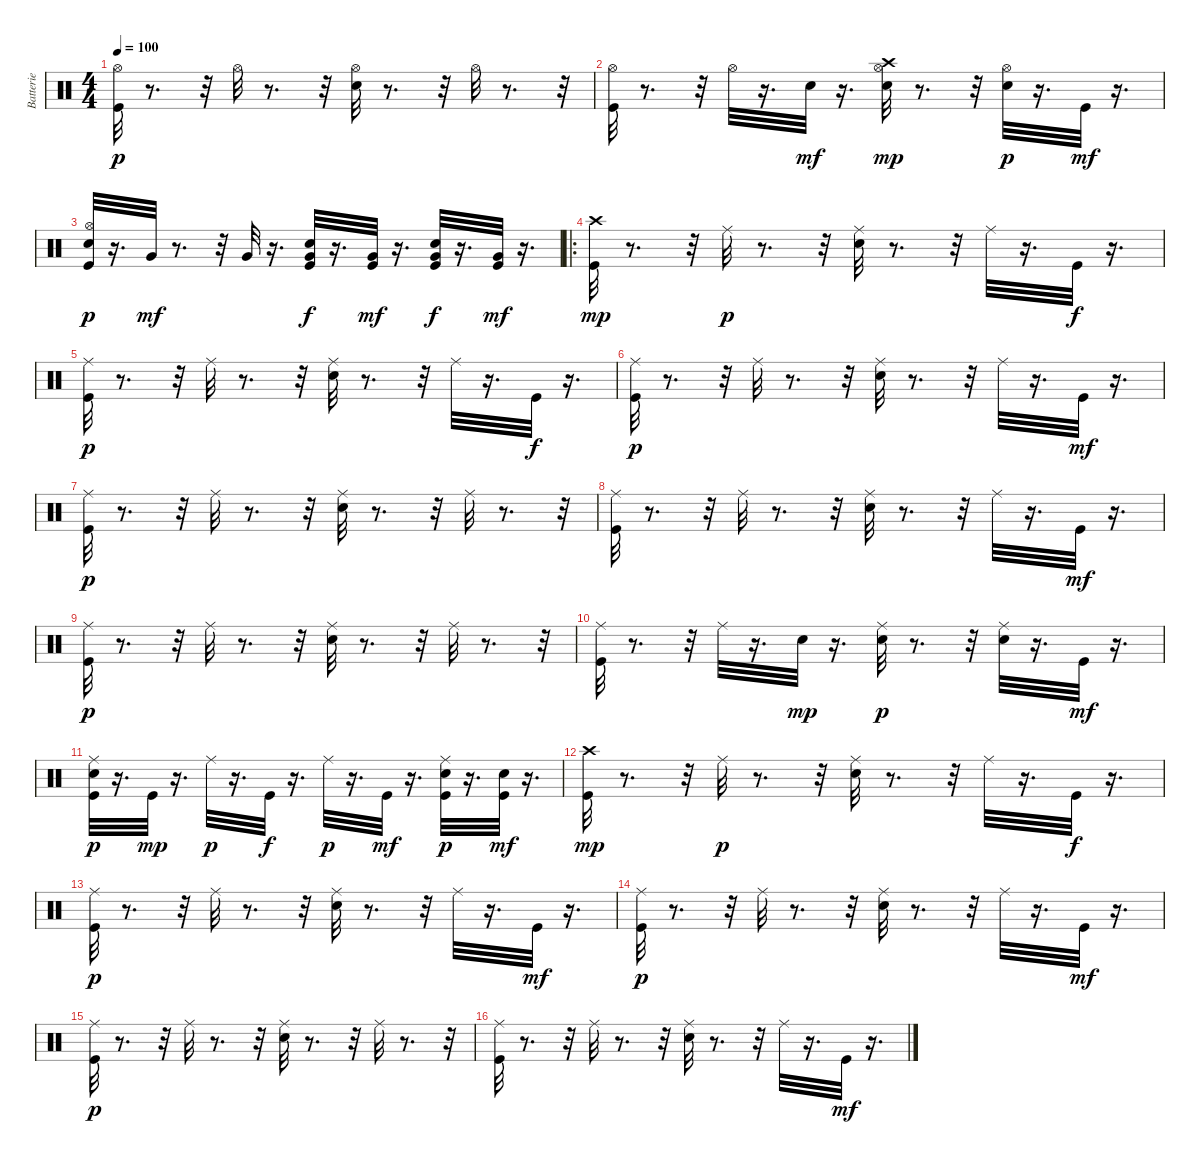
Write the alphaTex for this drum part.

\track ("Batterie" "Batterie") {instrument percussion}
\staff {score}
\articulation defaults
\ts (4 4)
\tempo 100
\clef neutral
\ks c
("Kick (hit)" "Hi-Hat (open)").32{dy p} r.8{d} r.32 "Hi-Hat (open)".32 r.8{d} r.32 ("Snare (hit) 2" "Hi-Hat (open)").32 r.8{d} r.32 "Hi-Hat (open)".32 r.8{d} r.32 |
("Kick (hit)" "Hi-Hat (open)").32 r.8{d} r.32 "Hi-Hat (open)".32 r.16{d} "Snare (hit) 2".32{dy mf} r.16{d} ("Snare (hit) 2" "Hi-Hat (open)" "Crash high (hit)").32{dy mp} r.8{d} r.32 ("Snare (hit) 2" "Hi-Hat (open)").32{dy p} r.16{d} "Kick (hit)".32{dy mf} r.16{d} |
("Kick (hit)" "Snare (hit) 2" "Hi-Hat (open)").32{dy p} r.16{d} "Very Low Tom (hit)".32{dy mf} r.8{d} r.32 "Very Low Tom (hit)".32 r.16{d} ("Kick (hit)" "Snare (hit) 2" "Very Low Tom (hit)").32{dy f} r.16{d} ("Kick (hit)" "Very Low Tom (hit)").32{dy mf} r.16{d} ("Kick (hit)" "Snare (hit) 2" "Very Low Tom (hit)").32{dy f} r.16{d} ("Kick (hit)" "Very Low Tom (hit)").32{dy mf} r.16{d} |
\ro
("Kick (hit)" "Crash high (hit)").32{dy mp} r.8{d} r.32 "Ride (middle)".32{dy p} r.8{d} r.32 ("Snare (hit) 2" "Ride (middle)").32 r.8{d} r.32 "Ride (middle)".32 r.16{d} "Kick (hit)".32{dy f} r.16{d} |
("Kick (hit)" "Ride (middle)").32{dy p} r.8{d} r.32 "Ride (middle)".32 r.8{d} r.32 ("Snare (hit) 2" "Ride (middle)").32 r.8{d} r.32 "Ride (middle)".32 r.16{d} "Kick (hit)".32{dy f} r.16{d} |
("Kick (hit)" "Ride (middle)").32{dy p} r.8{d} r.32 "Ride (middle)".32 r.8{d} r.32 ("Snare (hit) 2" "Ride (middle)").32 r.8{d} r.32 "Ride (middle)".32 r.16{d} "Kick (hit)".32{dy mf} r.16{d} |
("Kick (hit)" "Ride (middle)").32{dy p} r.8{d} r.32 "Ride (middle)".32 r.8{d} r.32 ("Snare (hit) 2" "Ride (middle)").32 r.8{d} r.32 "Ride (middle)".32 r.8{d} r.32 |
("Kick (hit)" "Ride (middle)").32 r.8{d} r.32 "Ride (middle)".32 r.8{d} r.32 ("Snare (hit) 2" "Ride (middle)").32 r.8{d} r.32 "Ride (middle)".32 r.16{d} "Kick (hit)".32{dy mf} r.16{d} |
("Kick (hit)" "Ride (middle)").32{dy p} r.8{d} r.32 "Ride (middle)".32 r.8{d} r.32 ("Snare (hit) 2" "Ride (middle)").32 r.8{d} r.32 "Ride (middle)".32 r.8{d} r.32 |
("Kick (hit)" "Ride (middle)").32 r.8{d} r.32 "Ride (middle)".32 r.16{d} "Snare (hit) 2".32{dy mp} r.16{d} ("Snare (hit) 2" "Ride (middle)").32{dy p} r.8{d} r.32 ("Snare (hit) 2" "Ride (middle)").32 r.16{d} "Kick (hit)".32{dy mf} r.16{d} |
("Kick (hit)" "Snare (hit) 2" "Ride (middle)").32{dy p} r.16{d} "Kick (hit)".32{dy mp} r.16{d} "Ride (middle)".32{dy p} r.16{d} "Kick (hit)".32{dy f} r.16{d} "Ride (middle)".32{dy p} r.16{d} "Kick (hit)".32{dy mf} r.16{d} ("Kick (hit)" "Snare (hit) 2" "Ride (middle)").32{dy p} r.16{d} ("Kick (hit)" "Snare (hit) 2").32{dy mf} r.16{d} |
("Kick (hit)" "Crash high (hit)").32{dy mp} r.8{d} r.32 "Ride (middle)".32{dy p} r.8{d} r.32 ("Snare (hit) 2" "Ride (middle)").32 r.8{d} r.32 "Ride (middle)".32 r.16{d} "Kick (hit)".32{dy f} r.16{d} |
("Kick (hit)" "Ride (middle)").32{dy p} r.8{d} r.32 "Ride (middle)".32 r.8{d} r.32 ("Snare (hit) 2" "Ride (middle)").32 r.8{d} r.32 "Ride (middle)".32 r.16{d} "Kick (hit)".32{dy mf} r.16{d} |
("Kick (hit)" "Ride (middle)").32{dy p} r.8{d} r.32 "Ride (middle)".32 r.8{d} r.32 ("Snare (hit) 2" "Ride (middle)").32 r.8{d} r.32 "Ride (middle)".32 r.16{d} "Kick (hit)".32{dy mf} r.16{d} |
("Kick (hit)" "Ride (middle)").32{dy p} r.8{d} r.32 "Ride (middle)".32 r.8{d} r.32 ("Snare (hit) 2" "Ride (middle)").32 r.8{d} r.32 "Ride (middle)".32 r.8{d} r.32 |
("Kick (hit)" "Ride (middle)").32 r.8{d} r.32 "Ride (middle)".32 r.8{d} r.32 ("Snare (hit) 2" "Ride (middle)").32 r.8{d} r.32 "Ride (middle)".32 r.16{d} "Kick (hit)".32{dy mf} r.16{d}
